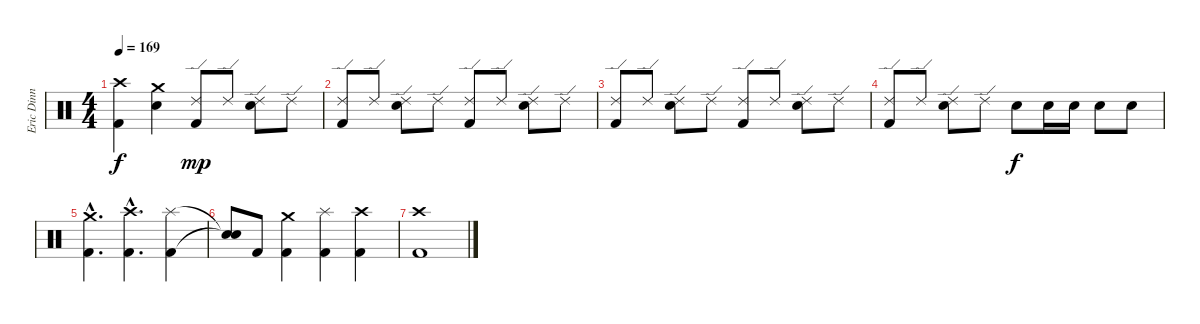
\track ("Eric Dinn" "Eric Dinn") {instrument percussion}
\staff {score}
\articulation defaults
\ts (4 4)
\tempo 169
\clef neutral
\ks c
("Crash high (hit)" "Kick (hit) 2").4{dy f} ("Crash medium (hit)" "Snare (hit) 2").4 ("Ride (edge) 2" "Kick (hit) 2").8{dy mp} "Ride (edge) 2".8 ("Ride (edge) 2" "Snare (hit) 2").8 "Ride (edge) 2".8 |
("Ride (edge) 2" "Kick (hit) 2").8 "Ride (edge) 2".8 ("Ride (edge) 2" "Snare (hit) 2").8 "Ride (edge) 2".8 ("Ride (edge) 2" "Kick (hit) 2").8 "Ride (edge) 2".8 ("Ride (edge) 2" "Snare (hit) 2").8 "Ride (edge) 2".8 |
("Ride (edge) 2" "Kick (hit) 2").8 "Ride (edge) 2".8 ("Ride (edge) 2" "Snare (hit) 2").8 "Ride (edge) 2".8 ("Ride (edge) 2" "Kick (hit) 2").8 "Ride (edge) 2".8 ("Ride (edge) 2" "Snare (hit) 2").8 "Ride (edge) 2".8 |
("Ride (edge) 2" "Kick (hit) 2").8 "Ride (edge) 2".8 ("Ride (edge) 2" "Snare (hit) 2").8 "Ride (edge) 2".8 "Snare (hit) 2".8{dy f} "Snare (hit) 2".16 "Snare (hit) 2".16 "Snare (hit) 2".8 "Snare (hit) 2".8 |
("Crash medium (hit)"{hac} "Kick (hit) 2"{hac}).4{d} ("Crash high (hit)"{hac} "Kick (hit) 2"{hac}).4{d} ("Splash (hit)" "Kick (hit) 2").4 |
("Snare (hit)"{t} "Snare (hit)"{t}).8 "Kick (hit) 2".8 ("Crash medium (hit)" "Kick (hit) 2").4 ("Splash (hit)" "Kick (hit) 2").4 ("Crash high (hit)" "Kick (hit) 2").4 |
("Crash high (hit)" "Kick (hit) 2").1
